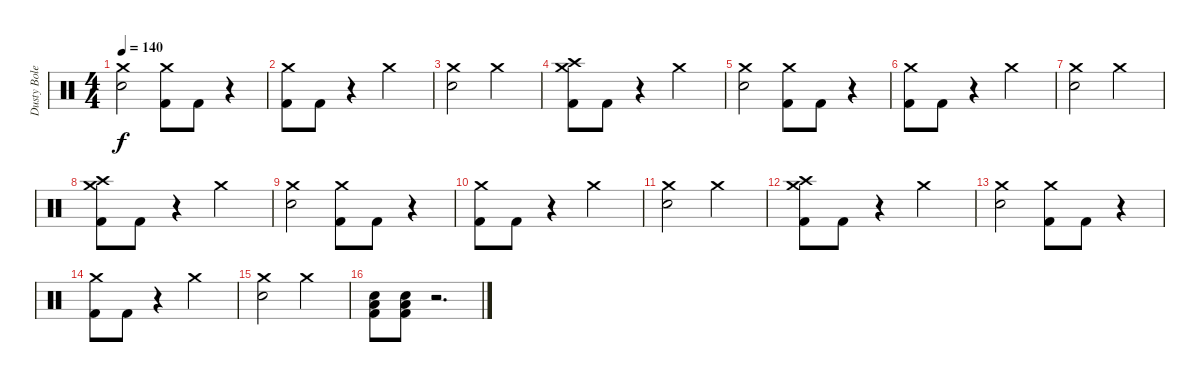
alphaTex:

\track ("Dusty Boles" "Dusty Bole") {instrument percussion}
\staff {score}
\articulation defaults
\ts (4 4)
\tempo 140
\clef neutral
\ks c
("Crash medium (hit)" "Electric Snare (hit)").2{dy f} ("Crash medium (hit)" "Kick (hit) 2").8 "Kick (hit) 2".8 r.4 |
("Crash medium (hit)" "Kick (hit) 2").8 "Kick (hit) 2".8 r.4 "Crash medium (hit)".2 |
("Crash medium (hit)" "Electric Snare (hit)").2 "Crash medium (hit)".2 |
("Crash high (hit)" "Crash medium (hit)" "Kick (hit) 2").8 "Kick (hit) 2".8 r.4 "Crash medium (hit)".2 |
("Crash medium (hit)" "Electric Snare (hit)").2 ("Crash medium (hit)" "Kick (hit) 2").8 "Kick (hit) 2".8 r.4 |
("Crash medium (hit)" "Kick (hit) 2").8 "Kick (hit) 2".8 r.4 "Crash medium (hit)".2 |
("Crash medium (hit)" "Electric Snare (hit)").2 "Crash medium (hit)".2 |
("Crash high (hit)" "Crash medium (hit)" "Kick (hit) 2").8 "Kick (hit) 2".8 r.4 "Crash medium (hit)".2 |
("Crash medium (hit)" "Electric Snare (hit)").2 ("Crash medium (hit)" "Kick (hit) 2").8 "Kick (hit) 2".8 r.4 |
("Crash medium (hit)" "Kick (hit) 2").8 "Kick (hit) 2".8 r.4 "Crash medium (hit)".2 |
("Crash medium (hit)" "Electric Snare (hit)").2 "Crash medium (hit)".2 |
("Crash high (hit)" "Crash medium (hit)" "Kick (hit) 2").8 "Kick (hit) 2".8 r.4 "Crash medium (hit)".2 |
("Crash medium (hit)" "Electric Snare (hit)").2 ("Crash medium (hit)" "Kick (hit) 2").8 "Kick (hit) 2".8 r.4 |
("Crash medium (hit)" "Kick (hit) 2").8 "Kick (hit) 2".8 r.4 "Crash medium (hit)".2 |
("Crash medium (hit)" "Electric Snare (hit)").2 "Crash medium (hit)".2 |
("Electric Snare (hit)" "Low Floor Tom (hit)" "Kick (hit) 2").8 ("Electric Snare (hit)" "Low Floor Tom (hit)" "Kick (hit) 2").8 r.2{d}
